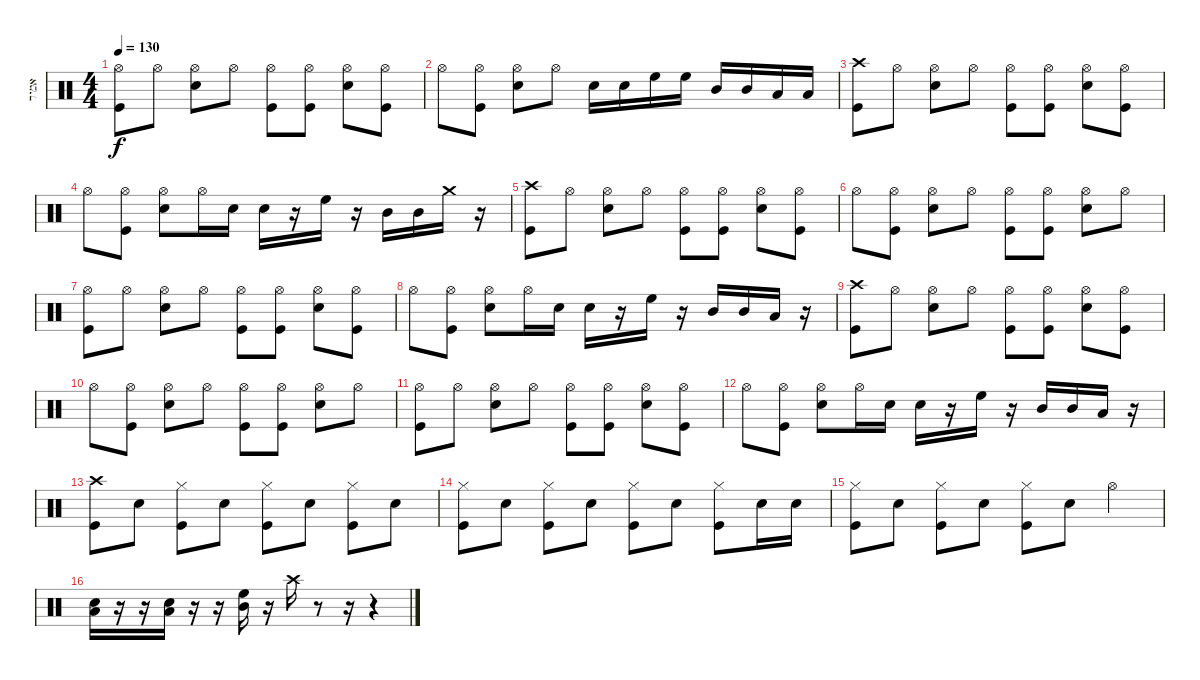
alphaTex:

\track ("אמיר" "אמיר") {instrument percussion}
\staff {score}
\articulation defaults
\ts (4 4)
\tempo 130
\clef neutral
\ks c
("Hi-Hat (open)" "Kick (hit)").8{dy f} "Hi-Hat (open)".8 ("Hi-Hat (open)" "Snare (hit) 2").8 "Hi-Hat (open)".8 ("Hi-Hat (open)" "Kick (hit)").8 ("Hi-Hat (open)" "Kick (hit)").8 ("Hi-Hat (open)" "Snare (hit) 2").8 ("Hi-Hat (open)" "Kick (hit)").8 |
"Hi-Hat (open)".8 ("Hi-Hat (open)" "Kick (hit)").8 ("Hi-Hat (open)" "Snare (hit) 2").8 "Hi-Hat (open)".8 "Snare (hit) 2".16 "Snare (hit) 2".16 "High Floor Tom (hit)".16 "High Floor Tom (hit)".16 "Mid Tom (hit)".16 "Mid Tom (hit)".16 "Low Floor Tom (hit)".16 "Low Floor Tom (hit)".16 |
("Crash high (hit)" "Kick (hit)").8 "Hi-Hat (open)".8 ("Hi-Hat (open)" "Snare (hit) 2").8 "Hi-Hat (open)".8 ("Hi-Hat (open)" "Kick (hit)").8 ("Hi-Hat (open)" "Kick (hit)").8 ("Hi-Hat (open)" "Snare (hit) 2").8 ("Hi-Hat (open)" "Kick (hit)").8 |
"Hi-Hat (open)".8 ("Hi-Hat (open)" "Kick (hit)").8 ("Hi-Hat (open)" "Snare (hit) 2").8 "Hi-Hat (open)".16 "Snare (hit) 2".16 "Snare (hit) 2".16 r.16 "High Floor Tom (hit)".16 r.16 "Mid Tom (hit)".16 "Mid Tom (hit)".16 "Crash medium (hit)".16 r.16 |
("Crash high (hit)" "Kick (hit)").8 "Hi-Hat (open)".8 ("Hi-Hat (open)" "Snare (hit) 2").8 "Hi-Hat (open)".8 ("Hi-Hat (open)" "Kick (hit)").8 ("Hi-Hat (open)" "Kick (hit)").8 ("Hi-Hat (open)" "Snare (hit) 2").8 ("Hi-Hat (open)" "Kick (hit)").8 |
"Hi-Hat (open)".8 ("Hi-Hat (open)" "Kick (hit)").8 ("Hi-Hat (open)" "Snare (hit) 2").8 "Hi-Hat (open)".8 ("Hi-Hat (open)" "Kick (hit)").8 ("Hi-Hat (open)" "Kick (hit)").8 ("Hi-Hat (open)" "Snare (hit) 2").8 "Hi-Hat (open)".8 |
("Hi-Hat (open)" "Kick (hit)").8 "Hi-Hat (open)".8 ("Hi-Hat (open)" "Snare (hit) 2").8 "Hi-Hat (open)".8 ("Hi-Hat (open)" "Kick (hit)").8 ("Hi-Hat (open)" "Kick (hit)").8 ("Hi-Hat (open)" "Snare (hit) 2").8 ("Hi-Hat (open)" "Kick (hit)").8 |
"Hi-Hat (open)".8 ("Hi-Hat (open)" "Kick (hit)").8 ("Hi-Hat (open)" "Snare (hit) 2").8 "Hi-Hat (open)".16 "Snare (hit) 2".16 "Snare (hit) 2".16 r.16 "High Floor Tom (hit)".16 r.16 "Mid Tom (hit)".16 "Mid Tom (hit)".16 "Low Floor Tom (hit)".16 r.16 |
("Crash high (hit)" "Kick (hit)").8 "Hi-Hat (open)".8 ("Hi-Hat (open)" "Snare (hit) 2").8 "Hi-Hat (open)".8 ("Hi-Hat (open)" "Kick (hit)").8 ("Hi-Hat (open)" "Kick (hit)").8 ("Hi-Hat (open)" "Snare (hit) 2").8 ("Hi-Hat (open)" "Kick (hit)").8 |
"Hi-Hat (open)".8 ("Hi-Hat (open)" "Kick (hit)").8 ("Hi-Hat (open)" "Snare (hit) 2").8 "Hi-Hat (open)".8 ("Hi-Hat (open)" "Kick (hit)").8 ("Hi-Hat (open)" "Kick (hit)").8 ("Hi-Hat (open)" "Snare (hit) 2").8 "Hi-Hat (open)".8 |
("Hi-Hat (open)" "Kick (hit)").8 "Hi-Hat (open)".8 ("Hi-Hat (open)" "Snare (hit) 2").8 "Hi-Hat (open)".8 ("Hi-Hat (open)" "Kick (hit)").8 ("Hi-Hat (open)" "Kick (hit)").8 ("Hi-Hat (open)" "Snare (hit) 2").8 ("Hi-Hat (open)" "Kick (hit)").8 |
"Hi-Hat (open)".8 ("Hi-Hat (open)" "Kick (hit)").8 ("Hi-Hat (open)" "Snare (hit) 2").8 "Hi-Hat (open)".16 "Snare (hit) 2".16 "Snare (hit) 2".16 r.16 "High Floor Tom (hit)".16 r.16 "Mid Tom (hit)".16 "Mid Tom (hit)".16 "Low Floor Tom (hit)".16 r.16 |
("Crash high (hit)" "Kick (hit)").8 "Snare (hit) 2".8 ("Hi-Hat (closed)" "Kick (hit)").8 "Snare (hit) 2".8 ("Hi-Hat (closed)" "Kick (hit)").8 "Snare (hit) 2".8 ("Hi-Hat (closed)" "Kick (hit)").8 "Snare (hit) 2".8 |
("Hi-Hat (closed)" "Kick (hit)").8 "Snare (hit) 2".8 ("Hi-Hat (closed)" "Kick (hit)").8 "Snare (hit) 2".8 ("Hi-Hat (closed)" "Kick (hit)").8 "Snare (hit) 2".8 ("Hi-Hat (closed)" "Kick (hit)").8 "Snare (hit) 2".16 "Snare (hit) 2".16 |
("Hi-Hat (closed)" "Kick (hit)").8 "Snare (hit) 2".8 ("Hi-Hat (closed)" "Kick (hit)").8 "Snare (hit) 2".8 ("Hi-Hat (closed)" "Kick (hit)").8 "Snare (hit) 2".8 "Hi-Hat (open)".4 |
("Snare (hit) 2" "Low Floor Tom (hit)").16 r.16 r.16 ("Snare (hit) 2" "Low Floor Tom (hit)").16 r.16 r.16 ("High Floor Tom (hit)" "Mid Tom (hit)").16 r.16 "Crash high (hit)".16 r.8 r.16 r.4
